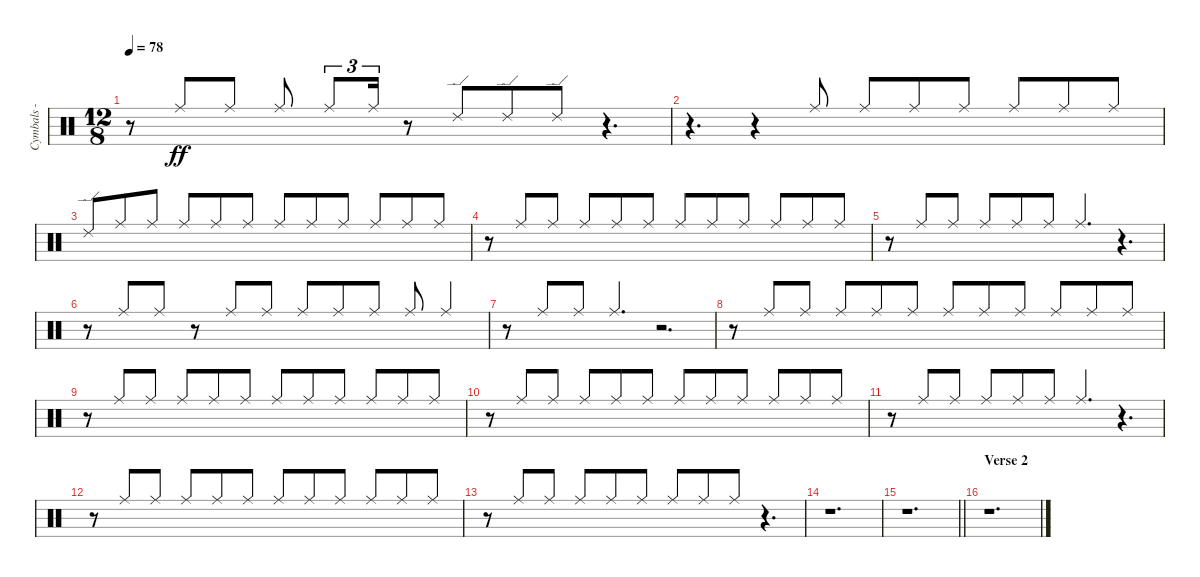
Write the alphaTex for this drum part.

\track ("Cymbals - ride" "Cymbals - ") {instrument percussion}
\staff {score}
\articulation defaults
\ts (12 8)
\tempo 78
\clef neutral
\ks c
r.8{dy ff} "Ride (middle)".8{beam Up} "Ride (middle)".8{beam Up} "Ride (middle)".8{beam Up} "Ride (middle)".8{tu (3 2) beam Up} "Ride (middle)".16{tu (3 2) beam Up} r.8 "Ride (edge) 2".8{beam Up} "Ride (edge) 2".8{beam Up} "Ride (edge) 2".8{beam Up} r.4{d} |
r.4{d} r.4 "Ride (middle)".8{beam Up} "Ride (middle)".8{beam Up} "Ride (middle)".8{beam Up} "Ride (middle)".8{beam Up} "Ride (middle)".8{beam Up} "Ride (middle)".8{beam Up} "Ride (middle)".8{beam Up} |
"Ride (edge) 2".8{beam Up} "Ride (middle)".8{beam Up} "Ride (middle)".8{beam Up} "Ride (middle)".8{beam Up} "Ride (middle)".8{beam Up} "Ride (middle)".8{beam Up} "Ride (middle)".8{beam Up} "Ride (middle)".8{beam Up} "Ride (middle)".8{beam Up} "Ride (middle)".8{beam Up} "Ride (middle)".8{beam Up} "Ride (middle)".8{beam Up} |
r.8 "Ride (middle)".8{beam Up} "Ride (middle)".8{beam Up} "Ride (middle)".8{beam Up} "Ride (middle)".8{beam Up} "Ride (middle)".8{beam Up} "Ride (middle)".8{beam Up} "Ride (middle)".8{beam Up} "Ride (middle)".8{beam Up} "Ride (middle)".8{beam Up} "Ride (middle)".8{beam Up} "Ride (middle)".8{beam Up} |
r.8 "Ride (middle)".8{beam Up} "Ride (middle)".8{beam Up} "Ride (middle)".8{beam Up} "Ride (middle)".8{beam Up} "Ride (middle)".8{beam Up} "Ride (middle)".4{d beam Up} r.4{d} |
r.8 "Ride (middle)".8{beam Up} "Ride (middle)".8{beam Up} r.8 "Ride (middle)".8{beam Up} "Ride (middle)".8{beam Up} "Ride (middle)".8{beam Up} "Ride (middle)".8{beam Up} "Ride (middle)".8{beam Up} "Ride (middle)".8{beam Up} "Ride (middle)".4{beam Up} |
r.8 "Ride (middle)".8{beam Up} "Ride (middle)".8{beam Up} "Ride (middle)".4{d beam Up} r.2{d} |
r.8 "Ride (middle)".8{beam Up} "Ride (middle)".8{beam Up} "Ride (middle)".8{beam Up} "Ride (middle)".8{beam Up} "Ride (middle)".8{beam Up} "Ride (middle)".8{beam Up} "Ride (middle)".8{beam Up} "Ride (middle)".8{beam Up} "Ride (middle)".8{beam Up} "Ride (middle)".8{beam Up} "Ride (middle)".8{beam Up} |
r.8 "Ride (middle)".8{beam Up} "Ride (middle)".8{beam Up} "Ride (middle)".8{beam Up} "Ride (middle)".8{beam Up} "Ride (middle)".8{beam Up} "Ride (middle)".8{beam Up} "Ride (middle)".8{beam Up} "Ride (middle)".8{beam Up} "Ride (middle)".8{beam Up} "Ride (middle)".8{beam Up} "Ride (middle)".8{beam Up} |
r.8 "Ride (middle)".8{beam Up} "Ride (middle)".8{beam Up} "Ride (middle)".8{beam Up} "Ride (middle)".8{beam Up} "Ride (middle)".8{beam Up} "Ride (middle)".8{beam Up} "Ride (middle)".8{beam Up} "Ride (middle)".8{beam Up} "Ride (middle)".8{beam Up} "Ride (middle)".8{beam Up} "Ride (middle)".8{beam Up} |
r.8 "Ride (middle)".8{beam Up} "Ride (middle)".8{beam Up} "Ride (middle)".8{beam Up} "Ride (middle)".8{beam Up} "Ride (middle)".8{beam Up} "Ride (middle)".4{d beam Up} r.4{d} |
r.8 "Ride (middle)".8{beam Up} "Ride (middle)".8{beam Up} "Ride (middle)".8{beam Up} "Ride (middle)".8{beam Up} "Ride (middle)".8{beam Up} "Ride (middle)".8{beam Up} "Ride (middle)".8{beam Up} "Ride (middle)".8{beam Up} "Ride (middle)".8{beam Up} "Ride (middle)".8{beam Up} "Ride (middle)".8{beam Up} |
r.8 "Ride (middle)".8{beam Up} "Ride (middle)".8{beam Up} "Ride (middle)".8{beam Up} "Ride (middle)".8{beam Up} "Ride (middle)".8{beam Up} "Ride (middle)".8{beam Up} "Ride (middle)".8{beam Up} "Ride (middle)".8{beam Up} r.4{d} |
r.1{d} |
\barLineRight lightlight
r.1{d} |
\section ("" "Verse 2")
r.1{d}
